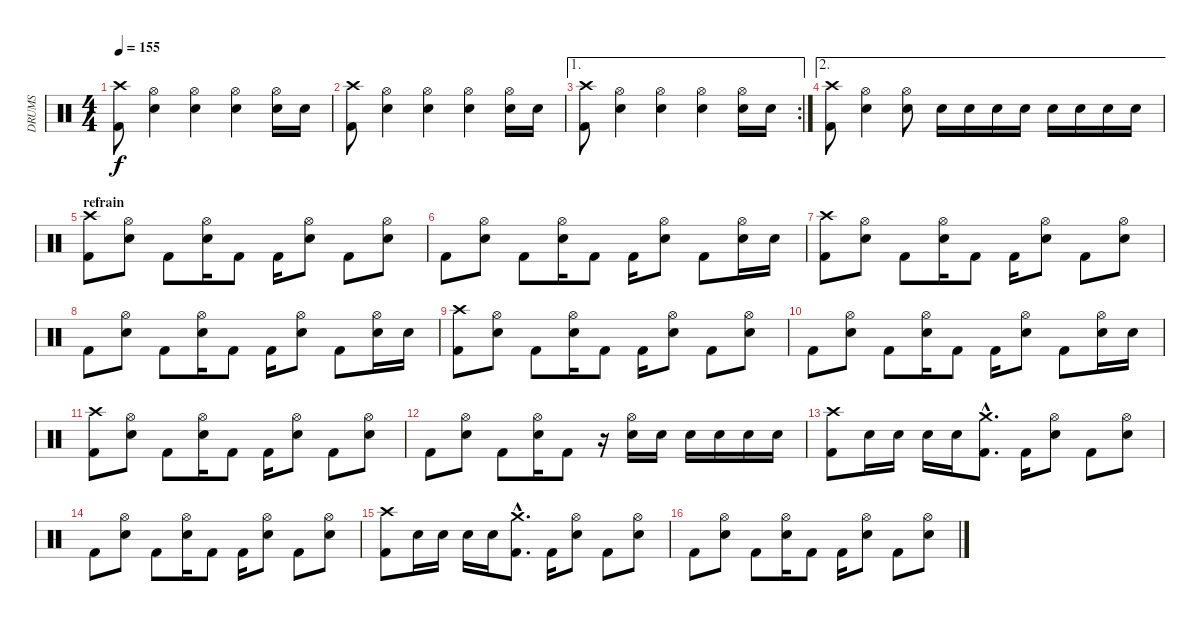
\track ("DRUMS" "DRUMS") {instrument percussion}
\staff {score}
\articulation defaults
\ts (4 4)
\tempo 155
\clef neutral
\ks c
("Crash high (hit)" "Kick (hit) 2").8{dy f} ("Hi-Hat (open)" "Electric Snare (hit)").4 ("Hi-Hat (open)" "Electric Snare (hit)").4 ("Hi-Hat (open)" "Electric Snare (hit)").4 ("Hi-Hat (open)" "Electric Snare (hit)").16 "Electric Snare (hit)".16 |
("Crash high (hit)" "Kick (hit) 2").8 ("Hi-Hat (open)" "Electric Snare (hit)").4 ("Hi-Hat (open)" "Electric Snare (hit)").4 ("Hi-Hat (open)" "Electric Snare (hit)").4 ("Hi-Hat (open)" "Electric Snare (hit)").16 "Electric Snare (hit)".16 |
\ae 1
\rc 2
("Crash high (hit)" "Kick (hit) 2").8 ("Hi-Hat (open)" "Electric Snare (hit)").4 ("Hi-Hat (open)" "Electric Snare (hit)").4 ("Hi-Hat (open)" "Electric Snare (hit)").4 ("Hi-Hat (open)" "Electric Snare (hit)").16 "Electric Snare (hit)".16 |
\ae 2
("Crash high (hit)" "Kick (hit) 2").8 ("Hi-Hat (open)" "Electric Snare (hit)").4 ("Hi-Hat (open)" "Electric Snare (hit)").8 "Electric Snare (hit)".16 "Electric Snare (hit)".16 "Electric Snare (hit)".16 "Electric Snare (hit)".16 "Electric Snare (hit)".16 "Electric Snare (hit)".16 "Electric Snare (hit)".16 "Electric Snare (hit)".16 |
\section ("" "refrain")
("Crash high (hit)" "Kick (hit) 2").8 ("Hi-Hat (open)" "Electric Snare (hit)").8 "Kick (hit) 2".8 ("Hi-Hat (open)" "Electric Snare (hit)").16 "Kick (hit) 2".8 "Kick (hit) 2".16 ("Hi-Hat (open)" "Electric Snare (hit)").8 "Kick (hit) 2".8 ("Hi-Hat (open)" "Electric Snare (hit)").8 |
"Kick (hit) 2".8 ("Hi-Hat (open)" "Electric Snare (hit)").8 "Kick (hit) 2".8 ("Hi-Hat (open)" "Electric Snare (hit)").16 "Kick (hit) 2".8 "Kick (hit) 2".16 ("Hi-Hat (open)" "Electric Snare (hit)").8 "Kick (hit) 2".8 ("Hi-Hat (open)" "Electric Snare (hit)").16 "Electric Snare (hit)".16 |
("Crash high (hit)" "Kick (hit) 2").8 ("Hi-Hat (open)" "Electric Snare (hit)").8 "Kick (hit) 2".8 ("Hi-Hat (open)" "Electric Snare (hit)").16 "Kick (hit) 2".8 "Kick (hit) 2".16 ("Hi-Hat (open)" "Electric Snare (hit)").8 "Kick (hit) 2".8 ("Hi-Hat (open)" "Electric Snare (hit)").8 |
"Kick (hit) 2".8 ("Hi-Hat (open)" "Electric Snare (hit)").8 "Kick (hit) 2".8 ("Hi-Hat (open)" "Electric Snare (hit)").16 "Kick (hit) 2".8 "Kick (hit) 2".16 ("Hi-Hat (open)" "Electric Snare (hit)").8 "Kick (hit) 2".8 ("Hi-Hat (open)" "Electric Snare (hit)").16 "Electric Snare (hit)".16 |
("Crash high (hit)" "Kick (hit) 2").8 ("Hi-Hat (open)" "Electric Snare (hit)").8 "Kick (hit) 2".8 ("Hi-Hat (open)" "Electric Snare (hit)").16 "Kick (hit) 2".8 "Kick (hit) 2".16 ("Hi-Hat (open)" "Electric Snare (hit)").8 "Kick (hit) 2".8 ("Hi-Hat (open)" "Electric Snare (hit)").8 |
"Kick (hit) 2".8 ("Hi-Hat (open)" "Electric Snare (hit)").8 "Kick (hit) 2".8 ("Hi-Hat (open)" "Electric Snare (hit)").16 "Kick (hit) 2".8 "Kick (hit) 2".16 ("Hi-Hat (open)" "Electric Snare (hit)").8 "Kick (hit) 2".8 ("Hi-Hat (open)" "Electric Snare (hit)").16 "Electric Snare (hit)".16 |
("Crash high (hit)" "Kick (hit) 2").8 ("Hi-Hat (open)" "Electric Snare (hit)").8 "Kick (hit) 2".8 ("Hi-Hat (open)" "Electric Snare (hit)").16 "Kick (hit) 2".8 "Kick (hit) 2".16 ("Hi-Hat (open)" "Electric Snare (hit)").8 "Kick (hit) 2".8 ("Hi-Hat (open)" "Electric Snare (hit)").8 |
"Kick (hit) 2".8 ("Hi-Hat (open)" "Electric Snare (hit)").8 "Kick (hit) 2".8 ("Hi-Hat (open)" "Electric Snare (hit)").16 "Kick (hit) 2".8 r.16 ("Hi-Hat (open)" "Electric Snare (hit)").16 "Electric Snare (hit)".16 "Electric Snare (hit)".16 "Electric Snare (hit)".16 "Electric Snare (hit)".16 "Electric Snare (hit)".16 |
\section ("" "")
("Crash high (hit)" "Kick (hit) 2").8 "Electric Snare (hit)".16 "Electric Snare (hit)".16 "Electric Snare (hit)".16 "Electric Snare (hit)".16 ("Crash medium (hit)"{hac} "Kick (hit) 2"{hac}).8{d} "Kick (hit) 2".16 ("Hi-Hat (open)" "Electric Snare (hit)").8 "Kick (hit) 2".8 ("Hi-Hat (open)" "Electric Snare (hit)").8 |
"Kick (hit) 2".8 ("Hi-Hat (open)" "Electric Snare (hit)").8 "Kick (hit) 2".8 ("Hi-Hat (open)" "Electric Snare (hit)").16 "Kick (hit) 2".8 "Kick (hit) 2".16 ("Hi-Hat (open)" "Electric Snare (hit)").8 "Kick (hit) 2".8 ("Hi-Hat (open)" "Electric Snare (hit)").8 |
("Crash high (hit)" "Kick (hit) 2").8 "Electric Snare (hit)".16 "Electric Snare (hit)".16 "Electric Snare (hit)".16 "Electric Snare (hit)".16 ("Crash medium (hit)"{hac} "Kick (hit) 2"{hac}).8{d} "Kick (hit) 2".16 ("Hi-Hat (open)" "Electric Snare (hit)").8 "Kick (hit) 2".8 ("Hi-Hat (open)" "Electric Snare (hit)").8 |
"Kick (hit) 2".8 ("Hi-Hat (open)" "Electric Snare (hit)").8 "Kick (hit) 2".8 ("Hi-Hat (open)" "Electric Snare (hit)").16 "Kick (hit) 2".8 "Kick (hit) 2".16 ("Hi-Hat (open)" "Electric Snare (hit)").8 "Kick (hit) 2".8 ("Hi-Hat (open)" "Electric Snare (hit)").8
